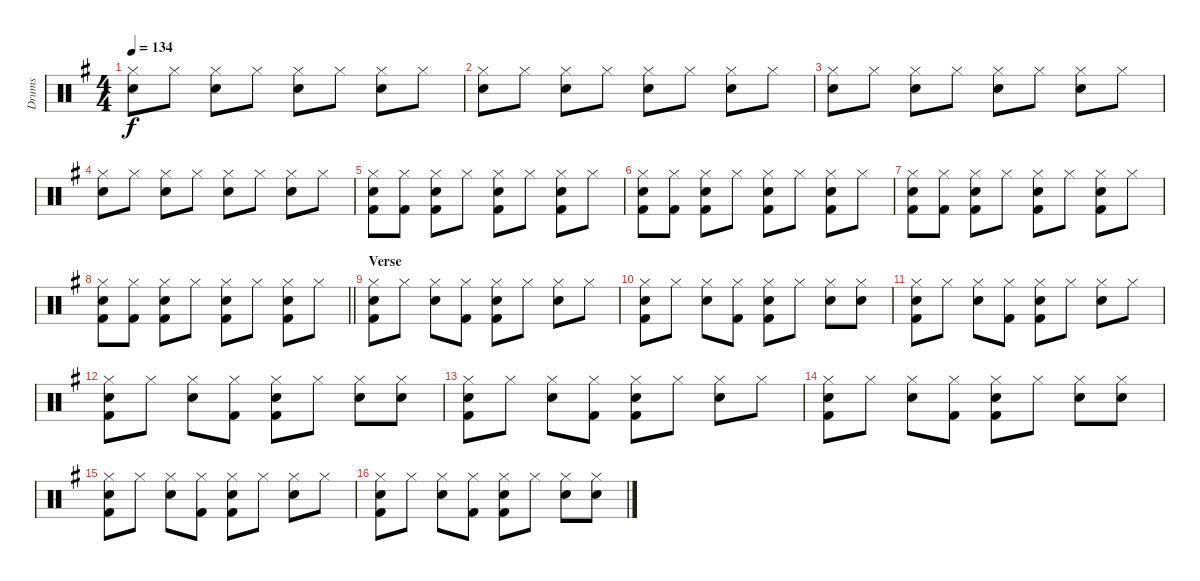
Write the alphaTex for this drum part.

\track ("Drums" "Drums") {instrument percussion}
\staff {score}
\articulation defaults
\ts (4 4)
\tempo 134
\clef neutral
\ks g
("Hi-Hat (closed)" "Electric Snare (hit)").8{dy f} "Hi-Hat (closed)".8 ("Hi-Hat (closed)" "Electric Snare (hit)").8 "Hi-Hat (closed)".8 ("Hi-Hat (closed)" "Electric Snare (hit)").8 "Hi-Hat (closed)".8 ("Hi-Hat (closed)" "Electric Snare (hit)").8 "Hi-Hat (closed)".8 |
("Hi-Hat (closed)" "Electric Snare (hit)").8 "Hi-Hat (closed)".8 ("Hi-Hat (closed)" "Electric Snare (hit)").8 "Hi-Hat (closed)".8 ("Hi-Hat (closed)" "Electric Snare (hit)").8 "Hi-Hat (closed)".8 ("Hi-Hat (closed)" "Electric Snare (hit)").8 "Hi-Hat (closed)".8 |
("Hi-Hat (closed)" "Electric Snare (hit)").8 "Hi-Hat (closed)".8 ("Hi-Hat (closed)" "Electric Snare (hit)").8 "Hi-Hat (closed)".8 ("Hi-Hat (closed)" "Electric Snare (hit)").8 "Hi-Hat (closed)".8 ("Hi-Hat (closed)" "Electric Snare (hit)").8 "Hi-Hat (closed)".8 |
("Hi-Hat (closed)" "Electric Snare (hit)").8 "Hi-Hat (closed)".8 ("Hi-Hat (closed)" "Electric Snare (hit)").8 "Hi-Hat (closed)".8 ("Hi-Hat (closed)" "Electric Snare (hit)").8 "Hi-Hat (closed)".8 ("Hi-Hat (closed)" "Electric Snare (hit)").8 "Hi-Hat (closed)".8 |
("Hi-Hat (closed)" "Electric Snare (hit)" "Kick (hit) 2").8 ("Hi-Hat (closed)" "Kick (hit) 2").8 ("Hi-Hat (closed)" "Electric Snare (hit)" "Kick (hit) 2").8 "Hi-Hat (closed)".8 ("Hi-Hat (closed)" "Electric Snare (hit)" "Kick (hit) 2").8 "Hi-Hat (closed)".8 ("Hi-Hat (closed)" "Electric Snare (hit)" "Kick (hit) 2").8 "Hi-Hat (closed)".8 |
("Hi-Hat (closed)" "Electric Snare (hit)" "Kick (hit) 2").8 ("Hi-Hat (closed)" "Kick (hit) 2").8 ("Hi-Hat (closed)" "Electric Snare (hit)" "Kick (hit) 2").8 "Hi-Hat (closed)".8 ("Hi-Hat (closed)" "Electric Snare (hit)" "Kick (hit) 2").8 "Hi-Hat (closed)".8 ("Hi-Hat (closed)" "Electric Snare (hit)" "Kick (hit) 2").8 "Hi-Hat (closed)".8 |
("Hi-Hat (closed)" "Electric Snare (hit)" "Kick (hit) 2").8 ("Hi-Hat (closed)" "Kick (hit) 2").8 ("Hi-Hat (closed)" "Electric Snare (hit)" "Kick (hit) 2").8 "Hi-Hat (closed)".8 ("Hi-Hat (closed)" "Electric Snare (hit)" "Kick (hit) 2").8 "Hi-Hat (closed)".8 ("Hi-Hat (closed)" "Electric Snare (hit)" "Kick (hit) 2").8 "Hi-Hat (closed)".8 |
\barLineRight lightlight
("Hi-Hat (closed)" "Electric Snare (hit)" "Kick (hit) 2").8 ("Hi-Hat (closed)" "Kick (hit) 2").8 ("Hi-Hat (closed)" "Electric Snare (hit)" "Kick (hit) 2").8 "Hi-Hat (closed)".8 ("Hi-Hat (closed)" "Electric Snare (hit)" "Kick (hit) 2").8 "Hi-Hat (closed)".8 ("Hi-Hat (closed)" "Electric Snare (hit)" "Kick (hit) 2").8 "Hi-Hat (closed)".8 |
\section ("" "Verse")
("Hi-Hat (closed)" "Electric Snare (hit)" "Kick (hit) 2").8 "Hi-Hat (closed)".8 ("Hi-Hat (closed)" "Electric Snare (hit)").8 ("Hi-Hat (closed)" "Kick (hit) 2").8 ("Hi-Hat (closed)" "Electric Snare (hit)" "Kick (hit) 2").8 "Hi-Hat (closed)".8 ("Hi-Hat (closed)" "Electric Snare (hit)").8 "Hi-Hat (closed)".8 |
("Hi-Hat (closed)" "Electric Snare (hit)" "Kick (hit) 2").8 "Hi-Hat (closed)".8 ("Hi-Hat (closed)" "Electric Snare (hit)").8 ("Hi-Hat (closed)" "Kick (hit) 2").8 ("Hi-Hat (closed)" "Electric Snare (hit)" "Kick (hit) 2").8 "Hi-Hat (closed)".8 ("Hi-Hat (closed)" "Electric Snare (hit)").8 ("Hi-Hat (closed)" "Electric Snare (hit)").8 |
("Hi-Hat (closed)" "Electric Snare (hit)" "Kick (hit) 2").8 "Hi-Hat (closed)".8 ("Hi-Hat (closed)" "Electric Snare (hit)").8 ("Hi-Hat (closed)" "Kick (hit) 2").8 ("Hi-Hat (closed)" "Electric Snare (hit)" "Kick (hit) 2").8 "Hi-Hat (closed)".8 ("Hi-Hat (closed)" "Electric Snare (hit)").8 "Hi-Hat (closed)".8 |
("Hi-Hat (closed)" "Electric Snare (hit)" "Kick (hit) 2").8 "Hi-Hat (closed)".8 ("Hi-Hat (closed)" "Electric Snare (hit)").8 ("Hi-Hat (closed)" "Kick (hit) 2").8 ("Hi-Hat (closed)" "Electric Snare (hit)" "Kick (hit) 2").8 "Hi-Hat (closed)".8 ("Hi-Hat (closed)" "Electric Snare (hit)").8 ("Hi-Hat (closed)" "Electric Snare (hit)").8 |
("Hi-Hat (closed)" "Electric Snare (hit)" "Kick (hit) 2").8 "Hi-Hat (closed)".8 ("Hi-Hat (closed)" "Electric Snare (hit)").8 ("Hi-Hat (closed)" "Kick (hit) 2").8 ("Hi-Hat (closed)" "Electric Snare (hit)" "Kick (hit) 2").8 "Hi-Hat (closed)".8 ("Hi-Hat (closed)" "Electric Snare (hit)").8 "Hi-Hat (closed)".8 |
("Hi-Hat (closed)" "Electric Snare (hit)" "Kick (hit) 2").8 "Hi-Hat (closed)".8 ("Hi-Hat (closed)" "Electric Snare (hit)").8 ("Hi-Hat (closed)" "Kick (hit) 2").8 ("Hi-Hat (closed)" "Electric Snare (hit)" "Kick (hit) 2").8 "Hi-Hat (closed)".8 ("Hi-Hat (closed)" "Electric Snare (hit)").8 ("Hi-Hat (closed)" "Electric Snare (hit)").8 |
("Hi-Hat (closed)" "Electric Snare (hit)" "Kick (hit) 2").8 "Hi-Hat (closed)".8 ("Hi-Hat (closed)" "Electric Snare (hit)").8 ("Hi-Hat (closed)" "Kick (hit) 2").8 ("Hi-Hat (closed)" "Electric Snare (hit)" "Kick (hit) 2").8 "Hi-Hat (closed)".8 ("Hi-Hat (closed)" "Electric Snare (hit)").8 "Hi-Hat (closed)".8 |
("Hi-Hat (closed)" "Electric Snare (hit)" "Kick (hit) 2").8 "Hi-Hat (closed)".8 ("Hi-Hat (closed)" "Electric Snare (hit)").8 ("Hi-Hat (closed)" "Kick (hit) 2").8 ("Hi-Hat (closed)" "Electric Snare (hit)" "Kick (hit) 2").8 "Hi-Hat (closed)".8 ("Hi-Hat (closed)" "Electric Snare (hit)").8 ("Hi-Hat (closed)" "Electric Snare (hit)").8
